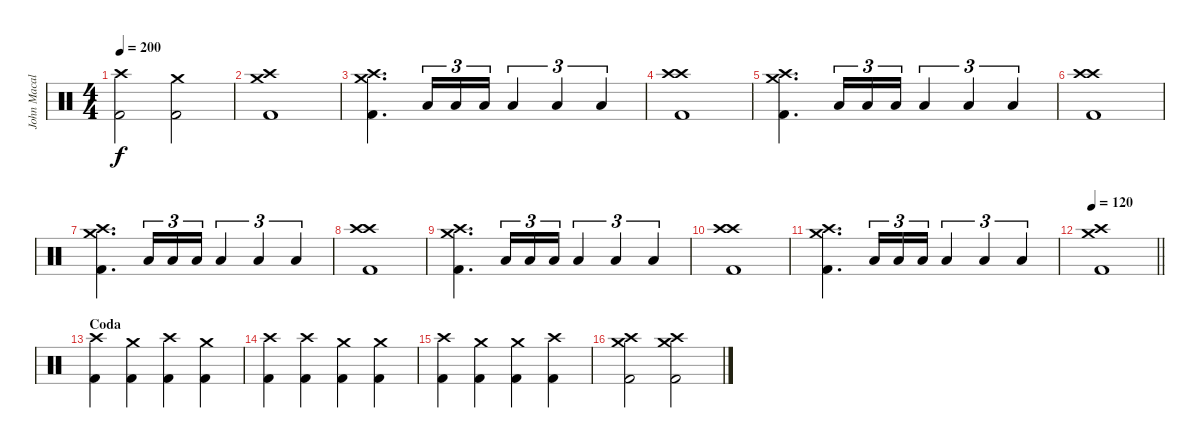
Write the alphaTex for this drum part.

\track ("John Macaluso" "John Macal") {instrument percussion}
\staff {score}
\articulation defaults
\ts (4 4)
\tempo 200
\clef neutral
\ks c
("Crash high (hit)" "Kick (hit) 2").2{dy f} ("Crash medium (hit)" "Kick (hit) 2").2 |
("Crash high (hit)" "Crash medium (hit)" "Kick (hit) 2").1 |
("Crash medium (hit)" "Crash high (hit)" "Kick (hit) 2").4{d} "Low Tom (hit)".16{tu (3 2)} "Low Tom (hit)".16{tu (3 2)} "Low Tom (hit)".16{tu (3 2)} "Low Tom (hit)".4{tu (3 2)} "Low Tom (hit)".4{tu (3 2)} "Low Tom (hit)".4{tu (3 2)} |
("Crash high (hit)" "Crash high (hit)" "Kick (hit) 2").1 |
("Crash medium (hit)" "Crash high (hit)" "Kick (hit) 2").4{d} "Low Tom (hit)".16{tu (3 2)} "Low Tom (hit)".16{tu (3 2)} "Low Tom (hit)".16{tu (3 2)} "Low Tom (hit)".4{tu (3 2)} "Low Tom (hit)".4{tu (3 2)} "Low Tom (hit)".4{tu (3 2)} |
("Crash high (hit)" "Crash high (hit)" "Kick (hit) 2").1 |
("Crash medium (hit)" "Crash high (hit)" "Kick (hit) 2").4{d} "Low Tom (hit)".16{tu (3 2)} "Low Tom (hit)".16{tu (3 2)} "Low Tom (hit)".16{tu (3 2)} "Low Tom (hit)".4{tu (3 2)} "Low Tom (hit)".4{tu (3 2)} "Low Tom (hit)".4{tu (3 2)} |
("Crash high (hit)" "Crash high (hit)" "Kick (hit) 2").1 |
("Crash medium (hit)" "Crash high (hit)" "Kick (hit) 2").4{d} "Low Tom (hit)".16{tu (3 2)} "Low Tom (hit)".16{tu (3 2)} "Low Tom (hit)".16{tu (3 2)} "Low Tom (hit)".4{tu (3 2)} "Low Tom (hit)".4{tu (3 2)} "Low Tom (hit)".4{tu (3 2)} |
("Crash high (hit)" "Crash high (hit)" "Kick (hit) 2").1 |
("Crash medium (hit)" "Crash high (hit)" "Kick (hit) 2").4{d} "Low Tom (hit)".16{tu (3 2)} "Low Tom (hit)".16{tu (3 2)} "Low Tom (hit)".16{tu (3 2)} "Low Tom (hit)".4{tu (3 2)} "Low Tom (hit)".4{tu (3 2)} "Low Tom (hit)".4{tu (3 2)} |
\tempo 120
\barLineRight lightlight
("Crash medium (hit)" "Crash high (hit)" "Kick (hit) 2").1 |
\section ("" "Coda")
("Crash high (hit)" "Kick (hit) 2").4 ("Crash medium (hit)" "Kick (hit) 2").4 ("Crash high (hit)" "Kick (hit) 2").4 ("Crash medium (hit)" "Kick (hit) 2").4 |
("Crash high (hit)" "Kick (hit) 2").4 ("Crash high (hit)" "Kick (hit) 2").4 ("Crash medium (hit)" "Kick (hit) 2").4 ("Crash medium (hit)" "Kick (hit) 2").4 |
("Crash high (hit)" "Kick (hit) 2").4 ("Crash medium (hit)" "Kick (hit) 2").4 ("Crash medium (hit)" "Kick (hit) 2").4 ("Crash high (hit)" "Kick (hit) 2").4 |
("Crash high (hit)" "Crash medium (hit)" "Kick (hit) 2").2 ("Crash medium (hit)" "Crash high (hit)" "Kick (hit) 2").2
